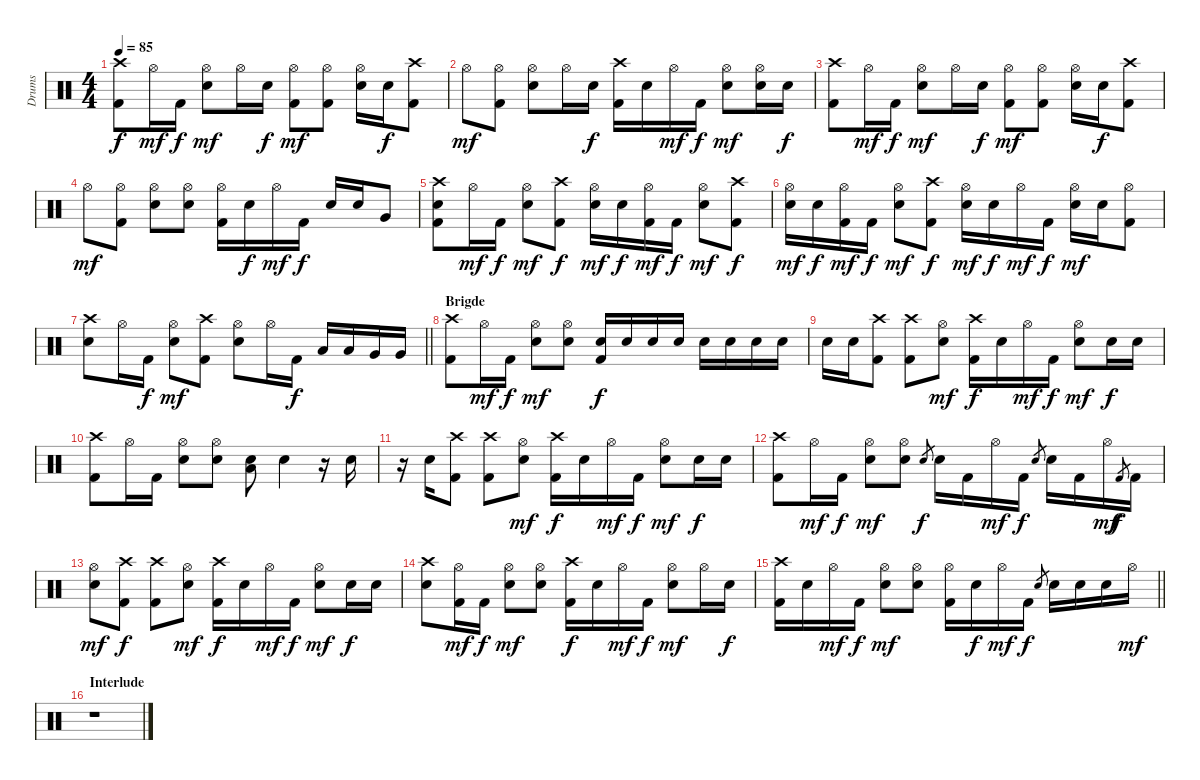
\track ("Drums" "Drums") {instrument percussion}
\staff {score}
\articulation defaults
\ts (4 4)
\tempo 85
\clef neutral
\ks c
("Crash high (hit)" "Kick (hit) 2").8{dy f} "Hi-Hat (open)".16{dy mf} "Kick (hit) 2".16{dy f} ("Hi-Hat (open)" "Electric Snare (hit)").8{dy mf} "Hi-Hat (open)".16 "Electric Snare (hit)".16{dy f} ("Hi-Hat (open)" "Kick (hit) 2").8{dy mf} ("Hi-Hat (open)" "Kick (hit) 2").8 ("Hi-Hat (open)" "Electric Snare (hit)").16 "Electric Snare (hit)".16{dy f} ("Crash high (hit)" "Kick (hit) 2").8 |
"Hi-Hat (open)".8{dy mf} ("Hi-Hat (open)" "Kick (hit) 2").8 ("Hi-Hat (open)" "Electric Snare (hit)").8 "Hi-Hat (open)".16 "Electric Snare (hit)".16{dy f} ("Crash high (hit)" "Kick (hit) 2").16 "Electric Snare (hit)".16 "Hi-Hat (open)".16{dy mf} "Kick (hit) 2".16{dy f} ("Hi-Hat (open)" "Electric Snare (hit)").8{dy mf} ("Hi-Hat (open)" "Electric Snare (hit)").16 "Electric Snare (hit)".16{dy f} |
("Crash high (hit)" "Kick (hit) 2").8 "Hi-Hat (open)".16{dy mf} "Kick (hit) 2".16{dy f} ("Hi-Hat (open)" "Electric Snare (hit)").8{dy mf} "Hi-Hat (open)".16 "Electric Snare (hit)".16{dy f} ("Hi-Hat (open)" "Kick (hit) 2").8{dy mf} ("Hi-Hat (open)" "Kick (hit) 2").8 ("Hi-Hat (open)" "Electric Snare (hit)").16 "Electric Snare (hit)".16{dy f} ("Crash high (hit)" "Kick (hit) 2").8 |
"Hi-Hat (open)".8{dy mf} ("Hi-Hat (open)" "Kick (hit) 2").8 ("Hi-Hat (open)" "Electric Snare (hit)").8 ("Hi-Hat (open)" "Electric Snare (hit)").8 ("Hi-Hat (open)" "Kick (hit) 2").16 "Electric Snare (hit)".16{dy f} "Hi-Hat (open)".16{dy mf} "Kick (hit) 2".16{dy f} "Electric Snare (hit)".16 "Electric Snare (hit)".16 "Very Low Tom (hit)".8 |
("Crash high (hit)" "Electric Snare (hit)" "Kick (hit) 2").8 "Hi-Hat (open)".16{dy mf} "Kick (hit) 2".16{dy f} ("Hi-Hat (open)" "Electric Snare (hit)").8{dy mf} ("Crash high (hit)" "Kick (hit) 2").8{dy f} ("Hi-Hat (open)" "Electric Snare (hit)").16{dy mf} "Electric Snare (hit)".16{dy f} ("Hi-Hat (open)" "Kick (hit) 2").16{dy mf} "Kick (hit) 2".16{dy f} ("Hi-Hat (open)" "Electric Snare (hit)").8{dy mf} ("Crash high (hit)" "Kick (hit) 2").8{dy f} |
("Hi-Hat (open)" "Electric Snare (hit)").16{dy mf} "Electric Snare (hit)".16{dy f} ("Hi-Hat (open)" "Kick (hit) 2").16{dy mf} "Kick (hit) 2".16{dy f} ("Hi-Hat (open)" "Electric Snare (hit)").8{dy mf} ("Crash high (hit)" "Kick (hit) 2").8{dy f} ("Hi-Hat (open)" "Electric Snare (hit)").16{dy mf} "Electric Snare (hit)".16{dy f} "Hi-Hat (open)".16{dy mf} "Kick (hit) 2".16{dy f} ("Hi-Hat (open)" "Electric Snare (hit)").16{dy mf} "Electric Snare (hit)".16 ("Hi-Hat (open)" "Kick (hit) 2").8 |
\barLineRight lightlight
("Crash high (hit)" "Electric Snare (hit)").8 "Hi-Hat (open)".16 "Kick (hit) 2".16{dy f} ("Hi-Hat (open)" "Electric Snare (hit)").8{dy mf} ("Crash high (hit)" "Kick (hit) 2").8 ("Hi-Hat (open)" "Electric Snare (hit)").8 "Hi-Hat (open)".16 "Kick (hit) 2".16{dy f} "Low Tom (hit)".16 "Low Tom (hit)".16 "Very Low Tom (hit)".16 "Very Low Tom (hit)".16 |
\section ("" "Brigde")
("Crash high (hit)" "Kick (hit) 2").8 "Hi-Hat (open)".16{dy mf} "Kick (hit) 2".16{dy f} ("Hi-Hat (open)" "Electric Snare (hit)").8{dy mf} ("Hi-Hat (open)" "Electric Snare (hit)").8 ("Electric Snare (hit)" "Kick (hit) 2").16{dy f} "Electric Snare (hit)".16 "Electric Snare (hit)".16 "Electric Snare (hit)".16 "Electric Snare (hit)".16 "Electric Snare (hit)".16 "Electric Snare (hit)".16 "Electric Snare (hit)".16 |
"Electric Snare (hit)".16 "Electric Snare (hit)".16 ("Crash high (hit)" "Kick (hit) 2").8 ("Crash high (hit)" "Kick (hit) 2").8 ("Hi-Hat (open)" "Electric Snare (hit)").8{dy mf} ("Crash high (hit)" "Kick (hit) 2").16{dy f} "Electric Snare (hit)".16 "Hi-Hat (open)".16{dy mf} "Kick (hit) 2".16{dy f} ("Hi-Hat (open)" "Electric Snare (hit)").8{dy mf} "Electric Snare (hit)".16{dy f} "Electric Snare (hit)".16 |
("Crash high (hit)" "Kick (hit) 2").8 "Hi-Hat (open)".16 "Kick (hit) 2".16 ("Hi-Hat (open)" "Electric Snare (hit)").8 ("Hi-Hat (open)" "Electric Snare (hit)").8 ("Low Tom (hit)" "Electric Snare (hit)").8 "Electric Snare (hit)".4 r.16 "Electric Snare (hit)".16 |
r.16 "Electric Snare (hit)".16 ("Crash high (hit)" "Kick (hit) 2").8 ("Crash high (hit)" "Kick (hit) 2").8 ("Hi-Hat (open)" "Electric Snare (hit)").8{dy mf} ("Crash high (hit)" "Kick (hit) 2").16{dy f} "Electric Snare (hit)".16 "Hi-Hat (open)".16{dy mf} "Kick (hit) 2".16{dy f} ("Hi-Hat (open)" "Electric Snare (hit)").8{dy mf} "Electric Snare (hit)".16{dy f} "Electric Snare (hit)".16 |
("Crash high (hit)" "Kick (hit) 2").8 "Hi-Hat (open)".16{dy mf} "Kick (hit) 2".16{dy f} ("Hi-Hat (open)" "Electric Snare (hit)").8{dy mf} ("Hi-Hat (open)" "Electric Snare (hit)").8 "Electric Snare (hit)".8{gr dy f} "Electric Snare (hit)".16 "Kick (hit) 2".16 "Hi-Hat (open)".16{dy mf} "Kick (hit) 2".16{dy f} "Electric Snare (hit)".8{gr} "Electric Snare (hit)".16 "Kick (hit) 2".16 "Hi-Hat (open)".16{dy mf} "Kick (hit) 2".8{gr dy f} "Kick (hit) 2".16 |
("Hi-Hat (open)" "Electric Snare (hit)").8{dy mf} ("Crash high (hit)" "Kick (hit) 2").8{dy f} ("Crash high (hit)" "Kick (hit) 2").8 ("Hi-Hat (open)" "Electric Snare (hit)").8{dy mf} ("Crash high (hit)" "Kick (hit) 2").16{dy f} "Electric Snare (hit)".16 "Hi-Hat (open)".16{dy mf} "Kick (hit) 2".16{dy f} ("Hi-Hat (open)" "Electric Snare (hit)").8{dy mf} "Electric Snare (hit)".16{dy f} "Electric Snare (hit)".16 |
("Crash high (hit)" "Electric Snare (hit)").8 ("Hi-Hat (open)" "Kick (hit) 2").16{dy mf} "Kick (hit) 2".16{dy f} ("Hi-Hat (open)" "Electric Snare (hit)").8{dy mf} ("Hi-Hat (open)" "Electric Snare (hit)").8 ("Crash high (hit)" "Kick (hit) 2").16{dy f} "Electric Snare (hit)".16 "Hi-Hat (open)".16{dy mf} "Kick (hit) 2".16{dy f} ("Hi-Hat (open)" "Electric Snare (hit)").8{dy mf} "Hi-Hat (open)".16 "Electric Snare (hit)".16{dy f} |
\barLineRight lightlight
("Crash high (hit)" "Kick (hit) 2").16 "Electric Snare (hit)".16 "Hi-Hat (open)".16{dy mf} "Kick (hit) 2".16{dy f} ("Hi-Hat (open)" "Electric Snare (hit)").8{dy mf} ("Hi-Hat (open)" "Electric Snare (hit)").8 ("Hi-Hat (open)" "Kick (hit) 2").16 "Electric Snare (hit)".16{dy f} "Hi-Hat (open)".16{dy mf} "Kick (hit) 2".16{dy f} "Electric Snare (hit)".8{gr} "Electric Snare (hit)".16 "Electric Snare (hit)".16 "Electric Snare (hit)".16 "Hi-Hat (open)".16{dy mf} |
\section ("" "Interlude")
r.1
